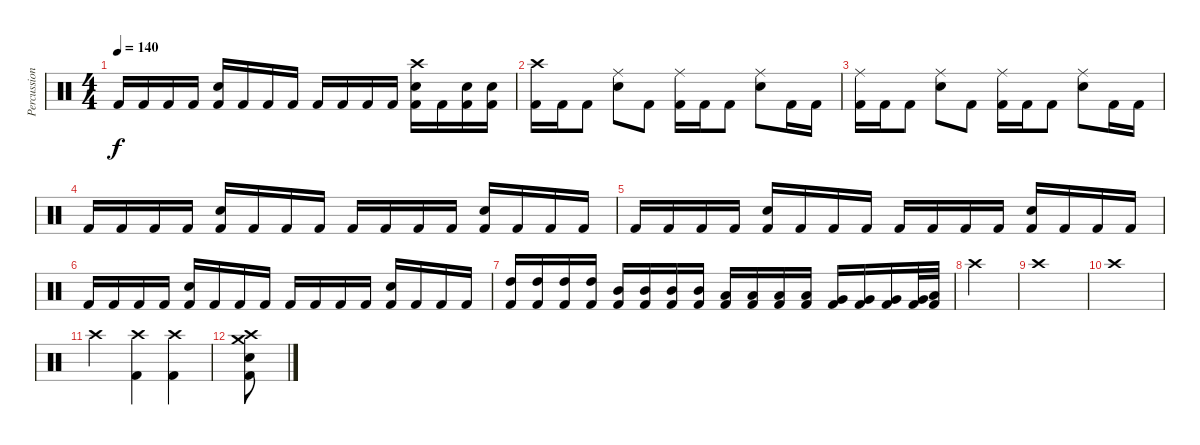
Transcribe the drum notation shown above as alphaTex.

\track ("Percussions" "Percussion") {instrument percussion}
\staff {score}
\articulation defaults
\ts (4 4)
\tempo 140
\clef neutral
\ks c "Kick (hit) 2".16{dy f} "Kick (hit) 2".16 "Kick (hit) 2".16 "Kick (hit) 2".16
("Electric Snare (hit)" "Kick (hit) 2").16 "Kick (hit) 2".16 "Kick (hit) 2".16 "Kick (hit) 2".16 "Kick (hit) 2".16 "Kick (hit) 2".16 "Kick (hit) 2".16 "Kick (hit) 2".16 ("Crash high (hit)" "Electric Snare (hit)" "Kick (hit) 2").16 "Kick (hit) 2".16 ("Electric Snare (hit)" "Kick (hit) 2").16 ("Electric Snare (hit)" "Kick (hit) 2").16 |
("Crash high (hit)" "Kick (hit) 2").16 "Kick (hit) 2".16 "Kick (hit) 2".8 ("Ride (middle)" "Electric Snare (hit)").8 "Kick (hit) 2".8 ("Ride (middle)" "Kick (hit) 2").16 "Kick (hit) 2".16 "Kick (hit) 2".8 ("Ride (middle)" "Electric Snare (hit)").8 "Kick (hit) 2".16 "Kick (hit) 2".16 |
("Ride (middle)" "Kick (hit) 2").16 "Kick (hit) 2".16 "Kick (hit) 2".8 ("Ride (middle)" "Electric Snare (hit)").8 "Kick (hit) 2".8 ("Ride (middle)" "Kick (hit) 2").16 "Kick (hit) 2".16 "Kick (hit) 2".8 ("Ride (middle)" "Electric Snare (hit)").8 "Kick (hit) 2".16 "Kick (hit) 2".16 |
"Kick (hit) 2".16 "Kick (hit) 2".16 "Kick (hit) 2".16 "Kick (hit) 2".16 ("Electric Snare (hit)" "Kick (hit) 2").16 "Kick (hit) 2".16 "Kick (hit) 2".16 "Kick (hit) 2".16 "Kick (hit) 2".16 "Kick (hit) 2".16 "Kick (hit) 2".16 "Kick (hit) 2".16 ("Electric Snare (hit)" "Kick (hit) 2").16 "Kick (hit) 2".16 "Kick (hit) 2".16 "Kick (hit) 2".16 |
"Kick (hit) 2".16 "Kick (hit) 2".16 "Kick (hit) 2".16 "Kick (hit) 2".16 ("Electric Snare (hit)" "Kick (hit) 2").16 "Kick (hit) 2".16 "Kick (hit) 2".16 "Kick (hit) 2".16 "Kick (hit) 2".16 "Kick (hit) 2".16 "Kick (hit) 2".16 "Kick (hit) 2".16 ("Electric Snare (hit)" "Kick (hit) 2").16 "Kick (hit) 2".16 "Kick (hit) 2".16 "Kick (hit) 2".16 |
"Kick (hit) 2".16 "Kick (hit) 2".16 "Kick (hit) 2".16 "Kick (hit) 2".16 ("Electric Snare (hit)" "Kick (hit) 2").16 "Kick (hit) 2".16 "Kick (hit) 2".16 "Kick (hit) 2".16 "Kick (hit) 2".16 "Kick (hit) 2".16 "Kick (hit) 2".16 "Kick (hit) 2".16 ("Electric Snare (hit)" "Kick (hit) 2").16 "Kick (hit) 2".16 "Kick (hit) 2".16 "Kick (hit) 2".16 |
("High Tom (hit)" "Kick (hit) 2").16 ("High Tom (hit)" "Kick (hit) 2").16 ("High Tom (hit)" "Kick (hit) 2").16 ("High Tom (hit)" "Kick (hit) 2").16 ("Mid Tom (hit)" "Kick (hit) 2").16 ("Mid Tom (hit)" "Kick (hit) 2").16 ("Mid Tom (hit)" "Kick (hit) 2").16 ("Mid Tom (hit)" "Kick (hit) 2").16 ("Low Tom (hit)" "Kick (hit) 2").16 ("Low Tom (hit)" "Kick (hit) 2").16 ("Low Tom (hit)" "Kick (hit) 2").16 ("Low Tom (hit)" "Kick (hit) 2").16 ("Very Low Tom (hit)" "Kick (hit) 2").16 ("Very Low Tom (hit)" "Kick (hit) 2").16 ("Very Low Tom (hit)" "Kick (hit) 2").16 ("Very Low Tom (hit)" "Kick (hit) 2").32 ("Low Floor Tom (hit)" "Kick (hit) 2").32 |
"Crash high (hit)".2 |
"Crash high (hit)".1 |
"Crash high (hit)".1 |
"Crash high (hit)".2 ("Crash high (hit)" "Kick (hit) 2").4 ("Crash high (hit)" "Kick (hit) 2").4 |
("Crash high (hit)" "Crash medium (hit)" "Electric Snare (hit)" "Kick (hit) 2").8
